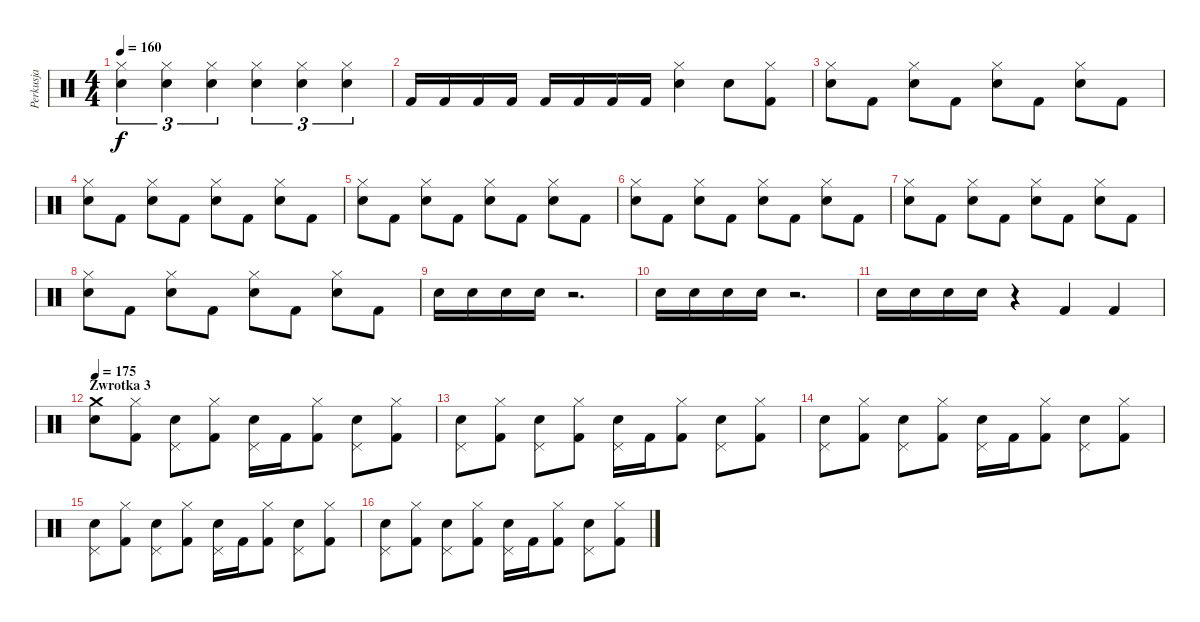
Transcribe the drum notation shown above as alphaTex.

\track ("Perkusja" "Perkusja") {instrument percussion}
\staff {score}
\articulation defaults
\ts (4 4)
\tempo 160
\clef neutral
\ks c
("Snare (hit) 2" "Hi-Hat (closed)").4{tu (3 2) dy f} ("Snare (hit) 2" "Hi-Hat (closed)").4{tu (3 2)} ("Snare (hit) 2" "Hi-Hat (closed)").4{tu (3 2)} ("Snare (hit) 2" "Hi-Hat (closed)").4{tu (3 2)} ("Snare (hit) 2" "Hi-Hat (closed)").4{tu (3 2)} ("Snare (hit) 2" "Hi-Hat (closed)").4{tu (3 2)} |
"Kick (hit) 2".16 "Kick (hit) 2".16 "Kick (hit) 2".16 "Kick (hit) 2".16 "Kick (hit) 2".16 "Kick (hit) 2".16 "Kick (hit) 2".16 "Kick (hit) 2".16 ("Snare (hit) 2" "Hi-Hat (closed)").4 "Snare (hit) 2".8 ("Kick (hit) 2" "Hi-Hat (closed)").8 |
("Snare (hit) 2" "Hi-Hat (closed)").8 "Kick (hit) 2".8 ("Snare (hit) 2" "Hi-Hat (closed)").8 "Kick (hit) 2".8 ("Snare (hit) 2" "Hi-Hat (closed)").8 "Kick (hit) 2".8 ("Snare (hit) 2" "Hi-Hat (closed)").8 "Kick (hit) 2".8 |
("Snare (hit) 2" "Hi-Hat (closed)").8 "Kick (hit) 2".8 ("Snare (hit) 2" "Hi-Hat (closed)").8 "Kick (hit) 2".8 ("Snare (hit) 2" "Hi-Hat (closed)").8 "Kick (hit) 2".8 ("Snare (hit) 2" "Hi-Hat (closed)").8 "Kick (hit) 2".8 |
("Snare (hit) 2" "Hi-Hat (closed)").8 "Kick (hit) 2".8 ("Snare (hit) 2" "Hi-Hat (closed)").8 "Kick (hit) 2".8 ("Snare (hit) 2" "Hi-Hat (closed)").8 "Kick (hit) 2".8 ("Snare (hit) 2" "Hi-Hat (closed)").8 "Kick (hit) 2".8 |
("Snare (hit) 2" "Hi-Hat (closed)").8 "Kick (hit) 2".8 ("Snare (hit) 2" "Hi-Hat (closed)").8 "Kick (hit) 2".8 ("Snare (hit) 2" "Hi-Hat (closed)").8 "Kick (hit) 2".8 ("Snare (hit) 2" "Hi-Hat (closed)").8 "Kick (hit) 2".8 |
("Snare (hit) 2" "Hi-Hat (closed)").8 "Kick (hit) 2".8 ("Snare (hit) 2" "Hi-Hat (closed)").8 "Kick (hit) 2".8 ("Snare (hit) 2" "Hi-Hat (closed)").8 "Kick (hit) 2".8 ("Snare (hit) 2" "Hi-Hat (closed)").8 "Kick (hit) 2".8 |
("Snare (hit) 2" "Hi-Hat (closed)").8 "Kick (hit) 2".8 ("Snare (hit) 2" "Hi-Hat (closed)").8 "Kick (hit) 2".8 ("Snare (hit) 2" "Hi-Hat (closed)").8 "Kick (hit) 2".8 ("Snare (hit) 2" "Hi-Hat (closed)").8 "Kick (hit) 2".8 |
"Snare (hit) 2".16 "Snare (hit) 2".16 "Snare (hit) 2".16 "Snare (hit) 2".16 r.2{d} |
"Snare (hit) 2".16 "Snare (hit) 2".16 "Snare (hit) 2".16 "Snare (hit) 2".16 r.2{d} |
"Snare (hit) 2".16 "Snare (hit) 2".16 "Snare (hit) 2".16 "Snare (hit) 2".16 r.4 "Kick (hit) 2".4 "Kick (hit) 2".4 |
\section ("" "Zwrotka 3")
\tempo 175
("Snare (hit) 2" "Crash medium (hit)").8 ("Kick (hit) 2" "Hi-Hat (closed)").8 ("Snare (hit) 2" "Pedal Hi-Hat (hit)").8 ("Kick (hit) 2" "Hi-Hat (closed)").8 ("Snare (hit) 2" "Pedal Hi-Hat (hit)").16 "Kick (hit) 2".16 ("Kick (hit) 2" "Hi-Hat (closed)").8 ("Snare (hit) 2" "Pedal Hi-Hat (hit)").8 ("Kick (hit) 2" "Hi-Hat (closed)").8 |
("Snare (hit) 2" "Pedal Hi-Hat (hit)").8 ("Kick (hit) 2" "Hi-Hat (closed)").8 ("Snare (hit) 2" "Pedal Hi-Hat (hit)").8 ("Kick (hit) 2" "Hi-Hat (closed)").8 ("Snare (hit) 2" "Pedal Hi-Hat (hit)").16 "Kick (hit) 2".16 ("Kick (hit) 2" "Hi-Hat (closed)").8 ("Snare (hit) 2" "Pedal Hi-Hat (hit)").8 ("Kick (hit) 2" "Hi-Hat (closed)").8 |
("Snare (hit) 2" "Pedal Hi-Hat (hit)").8 ("Kick (hit) 2" "Hi-Hat (closed)").8 ("Snare (hit) 2" "Pedal Hi-Hat (hit)").8 ("Kick (hit) 2" "Hi-Hat (closed)").8 ("Snare (hit) 2" "Pedal Hi-Hat (hit)").16 "Kick (hit) 2".16 ("Kick (hit) 2" "Hi-Hat (closed)").8 ("Snare (hit) 2" "Pedal Hi-Hat (hit)").8 ("Kick (hit) 2" "Hi-Hat (closed)").8 |
("Snare (hit) 2" "Pedal Hi-Hat (hit)").8 ("Kick (hit) 2" "Hi-Hat (closed)").8 ("Snare (hit) 2" "Pedal Hi-Hat (hit)").8 ("Kick (hit) 2" "Hi-Hat (closed)").8 ("Snare (hit) 2" "Pedal Hi-Hat (hit)").16 "Kick (hit) 2".16 ("Kick (hit) 2" "Hi-Hat (closed)").8 ("Snare (hit) 2" "Pedal Hi-Hat (hit)").8 ("Kick (hit) 2" "Hi-Hat (closed)").8 |
("Snare (hit) 2" "Pedal Hi-Hat (hit)").8 ("Kick (hit) 2" "Hi-Hat (closed)").8 ("Snare (hit) 2" "Pedal Hi-Hat (hit)").8 ("Kick (hit) 2" "Hi-Hat (closed)").8 ("Snare (hit) 2" "Pedal Hi-Hat (hit)").16 "Kick (hit) 2".16 ("Kick (hit) 2" "Hi-Hat (closed)").8 ("Snare (hit) 2" "Pedal Hi-Hat (hit)").8 ("Kick (hit) 2" "Hi-Hat (closed)").8
